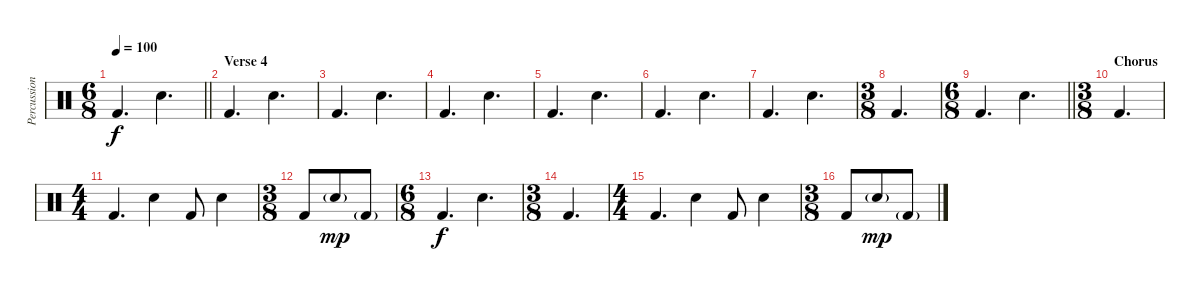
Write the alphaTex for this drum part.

\track ("Percussion" "Percussion") {instrument percussion}
\staff {score}
\articulation defaults
\ts (6 8)
\tempo 100
\clef neutral
\barLineRight lightlight
\ks c "Kick (hit) 2".4{d dy f} "Snare (hit) 2".4{d}
|
\section ("" "Verse 4")
"Kick (hit) 2".4{d} "Snare (hit) 2".4{d} |
"Kick (hit) 2".4{d} "Snare (hit) 2".4{d} |
"Kick (hit) 2".4{d} "Snare (hit) 2".4{d} |
"Kick (hit) 2".4{d} "Snare (hit) 2".4{d} |
"Kick (hit) 2".4{d} "Snare (hit) 2".4{d} |
"Kick (hit) 2".4{d} "Snare (hit) 2".4{d} |
\ts (3 8)
"Kick (hit) 2".4{d} |
\ts (6 8)
\barLineRight lightlight "Kick (hit) 2".4{d} "Snare (hit) 2".4{d}
|
\ts (3 8)
\section ("" "Chorus")
"Kick (hit) 2".4{d} |
\ts (4 4)
"Kick (hit) 2".4{d} "Snare (hit) 2".4 "Kick (hit) 2".8 "Snare (hit) 2".4 |
\ts (3 8)
"Kick (hit) 2".8 "Snare (hit) 2"{g}.8{dy mp} "Kick (hit) 2"{g}.8 |
\ts (6 8)
"Kick (hit) 2".4{d dy f} "Snare (hit) 2".4{d} |
\ts (3 8)
"Kick (hit) 2".4{d} |
\ts (4 4)
"Kick (hit) 2".4{d} "Snare (hit) 2".4 "Kick (hit) 2".8 "Snare (hit) 2".4 |
\ts (3 8)
"Kick (hit) 2".8 "Snare (hit) 2"{g}.8{dy mp} "Kick (hit) 2"{g}.8
